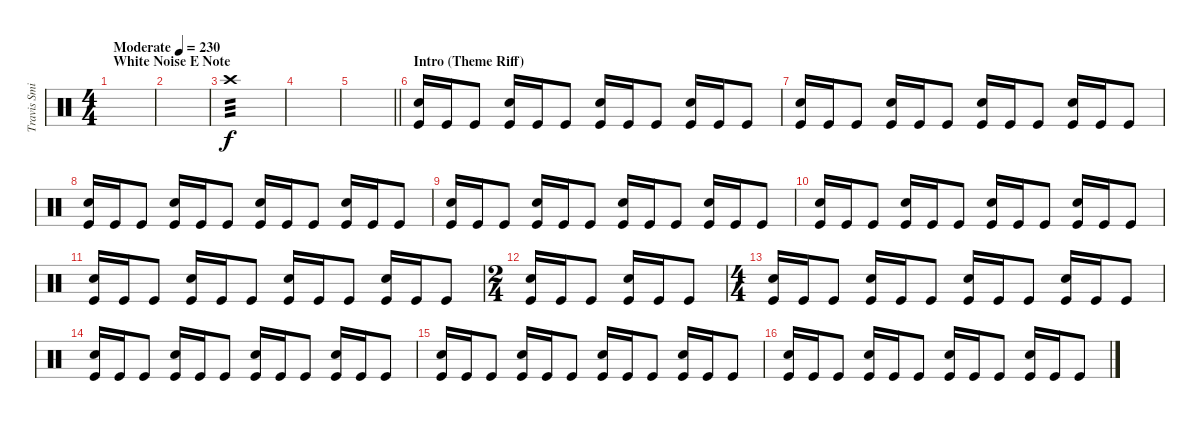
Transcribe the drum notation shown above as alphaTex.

\track ("Travis Smith" "Travis Smi") {instrument percussion}
\staff {score}
\articulation defaults
\ts (4 4)
\section ("" "White Noise E Note")
\tempo (230 "Moderate")
\clef neutral
\ks c
|
|
"Crash high (hit)".1{tp 3 volume 7} |
|
\barLineRight lightlight
|
\section ("" "Intro (Theme Riff)")
("Snare (hit) 2" "Kick (hit)").16 "Kick (hit)".16 "Kick (hit)".8 ("Snare (hit) 2" "Kick (hit)").16 "Kick (hit)".16 "Kick (hit)".8 ("Snare (hit) 2" "Kick (hit)").16 "Kick (hit)".16 "Kick (hit)".8 ("Snare (hit) 2" "Kick (hit)").16 "Kick (hit)".16 "Kick (hit)".8 |
("Snare (hit) 2" "Kick (hit)").16 "Kick (hit)".16 "Kick (hit)".8 ("Snare (hit) 2" "Kick (hit)").16 "Kick (hit)".16 "Kick (hit)".8 ("Snare (hit) 2" "Kick (hit)").16 "Kick (hit)".16 "Kick (hit)".8 ("Snare (hit) 2" "Kick (hit)").16 "Kick (hit)".16 "Kick (hit)".8 |
("Snare (hit) 2" "Kick (hit)").16 "Kick (hit)".16 "Kick (hit)".8 ("Snare (hit) 2" "Kick (hit)").16 "Kick (hit)".16 "Kick (hit)".8 ("Snare (hit) 2" "Kick (hit)").16 "Kick (hit)".16 "Kick (hit)".8 ("Snare (hit) 2" "Kick (hit)").16 "Kick (hit)".16 "Kick (hit)".8 |
("Snare (hit) 2" "Kick (hit)").16 "Kick (hit)".16 "Kick (hit)".8 ("Snare (hit) 2" "Kick (hit)").16 "Kick (hit)".16 "Kick (hit)".8 ("Snare (hit) 2" "Kick (hit)").16 "Kick (hit)".16 "Kick (hit)".8 ("Snare (hit) 2" "Kick (hit)").16 "Kick (hit)".16 "Kick (hit)".8 |
("Snare (hit) 2" "Kick (hit)").16 "Kick (hit)".16 "Kick (hit)".8 ("Snare (hit) 2" "Kick (hit)").16 "Kick (hit)".16 "Kick (hit)".8 ("Snare (hit) 2" "Kick (hit)").16 "Kick (hit)".16 "Kick (hit)".8 ("Snare (hit) 2" "Kick (hit)").16 "Kick (hit)".16 "Kick (hit)".8 |
("Snare (hit) 2" "Kick (hit)").16 "Kick (hit)".16 "Kick (hit)".8 ("Snare (hit) 2" "Kick (hit)").16 "Kick (hit)".16 "Kick (hit)".8 ("Snare (hit) 2" "Kick (hit)").16 "Kick (hit)".16 "Kick (hit)".8 ("Snare (hit) 2" "Kick (hit)").16 "Kick (hit)".16 "Kick (hit)".8 |
\ts (2 4)
("Snare (hit) 2" "Kick (hit)").16 "Kick (hit)".16 "Kick (hit)".8 ("Snare (hit) 2" "Kick (hit)").16 "Kick (hit)".16 "Kick (hit)".8 |
\ts (4 4)
("Snare (hit) 2" "Kick (hit)").16 "Kick (hit)".16 "Kick (hit)".8 ("Snare (hit) 2" "Kick (hit)").16 "Kick (hit)".16 "Kick (hit)".8 ("Snare (hit) 2" "Kick (hit)").16 "Kick (hit)".16 "Kick (hit)".8 ("Snare (hit) 2" "Kick (hit)").16 "Kick (hit)".16 "Kick (hit)".8 |
("Snare (hit) 2" "Kick (hit)").16 "Kick (hit)".16 "Kick (hit)".8 ("Snare (hit) 2" "Kick (hit)").16 "Kick (hit)".16 "Kick (hit)".8 ("Snare (hit) 2" "Kick (hit)").16 "Kick (hit)".16 "Kick (hit)".8 ("Snare (hit) 2" "Kick (hit)").16 "Kick (hit)".16 "Kick (hit)".8 |
("Snare (hit) 2" "Kick (hit)").16 "Kick (hit)".16 "Kick (hit)".8 ("Snare (hit) 2" "Kick (hit)").16 "Kick (hit)".16 "Kick (hit)".8 ("Snare (hit) 2" "Kick (hit)").16 "Kick (hit)".16 "Kick (hit)".8 ("Snare (hit) 2" "Kick (hit)").16 "Kick (hit)".16 "Kick (hit)".8 |
("Snare (hit) 2" "Kick (hit)").16 "Kick (hit)".16 "Kick (hit)".8 ("Snare (hit) 2" "Kick (hit)").16 "Kick (hit)".16 "Kick (hit)".8 ("Snare (hit) 2" "Kick (hit)").16 "Kick (hit)".16 "Kick (hit)".8 ("Snare (hit) 2" "Kick (hit)").16 "Kick (hit)".16 "Kick (hit)".8
